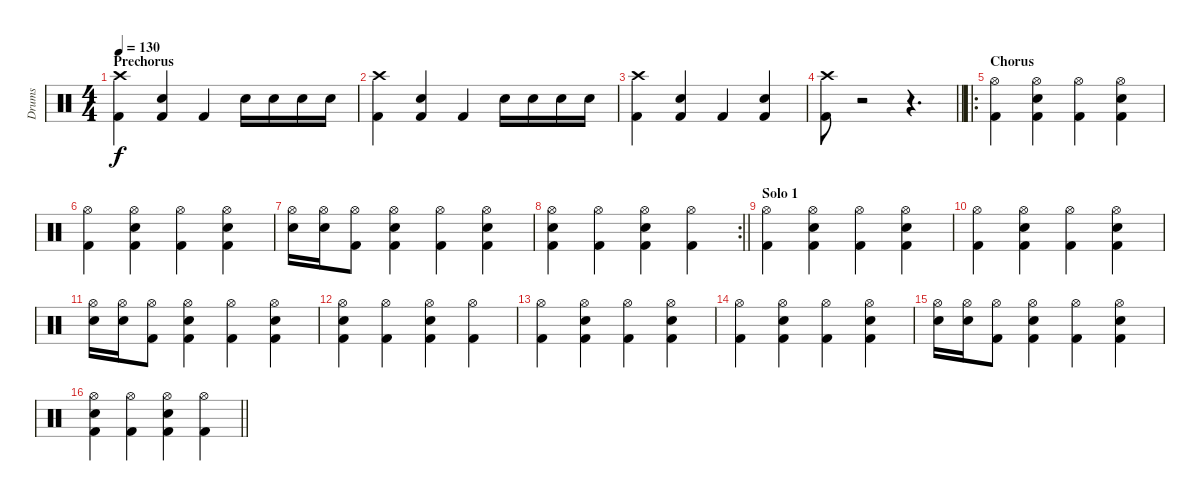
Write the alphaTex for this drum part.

\track ("Drums" "Drums") {instrument percussion}
\staff {score}
\articulation defaults
\ts (4 4)
\section ("" "Prechorus")
\tempo 130
\clef neutral
\ks c
("Crash high (hit)" "Kick (hit) 2").4{dy f} ("Snare (hit) 2" "Kick (hit) 2").4 "Kick (hit) 2".4 "Snare (hit) 2".16 "Snare (hit) 2".16 "Snare (hit) 2".16 "Snare (hit) 2".16 |
("Crash high (hit)" "Kick (hit) 2").4 ("Snare (hit) 2" "Kick (hit) 2").4 "Kick (hit) 2".4 "Snare (hit) 2".16 "Snare (hit) 2".16 "Snare (hit) 2".16 "Snare (hit) 2".16 |
("Crash high (hit)" "Kick (hit) 2").4 ("Snare (hit) 2" "Kick (hit) 2").4 "Kick (hit) 2".4 ("Snare (hit) 2" "Kick (hit) 2").4 |
\barLineRight lightlight
("Crash high (hit)" "Kick (hit) 2").8 r.2 r.4{d} |
\ro
\section ("" "Chorus")
("Hi-Hat (open)" "Kick (hit) 2").4 ("Hi-Hat (open)" "Snare (hit) 2" "Kick (hit) 2").4 ("Hi-Hat (open)" "Kick (hit) 2").4 ("Hi-Hat (open)" "Snare (hit) 2" "Kick (hit) 2").4 |
("Hi-Hat (open)" "Kick (hit) 2").4 ("Hi-Hat (open)" "Snare (hit) 2" "Kick (hit) 2").4 ("Hi-Hat (open)" "Kick (hit) 2").4 ("Hi-Hat (open)" "Snare (hit) 2" "Kick (hit) 2").4 |
("Hi-Hat (open)" "Snare (hit) 2").16 ("Hi-Hat (open)" "Snare (hit) 2").16 ("Hi-Hat (open)" "Kick (hit) 2").8 ("Hi-Hat (open)" "Snare (hit) 2" "Kick (hit) 2").4 ("Hi-Hat (open)" "Kick (hit) 2").4 ("Hi-Hat (open)" "Snare (hit) 2" "Kick (hit) 2").4 |
\rc 2
\barLineRight lightlight
("Hi-Hat (open)" "Snare (hit) 2" "Kick (hit) 2").4 ("Hi-Hat (open)" "Kick (hit) 2").4 ("Hi-Hat (open)" "Snare (hit) 2" "Kick (hit) 2").4 ("Hi-Hat (open)" "Kick (hit) 2").4 |
\section ("" "Solo 1")
("Hi-Hat (open)" "Kick (hit) 2").4 ("Hi-Hat (open)" "Snare (hit) 2" "Kick (hit) 2").4 ("Hi-Hat (open)" "Kick (hit) 2").4 ("Hi-Hat (open)" "Snare (hit) 2" "Kick (hit) 2").4 |
("Hi-Hat (open)" "Kick (hit) 2").4 ("Hi-Hat (open)" "Snare (hit) 2" "Kick (hit) 2").4 ("Hi-Hat (open)" "Kick (hit) 2").4 ("Hi-Hat (open)" "Snare (hit) 2" "Kick (hit) 2").4 |
("Hi-Hat (open)" "Snare (hit) 2").16 ("Hi-Hat (open)" "Snare (hit) 2").16 ("Hi-Hat (open)" "Kick (hit) 2").8 ("Hi-Hat (open)" "Snare (hit) 2" "Kick (hit) 2").4 ("Hi-Hat (open)" "Kick (hit) 2").4 ("Hi-Hat (open)" "Snare (hit) 2" "Kick (hit) 2").4 |
("Hi-Hat (open)" "Snare (hit) 2" "Kick (hit) 2").4 ("Hi-Hat (open)" "Kick (hit) 2").4 ("Hi-Hat (open)" "Snare (hit) 2" "Kick (hit) 2").4 ("Hi-Hat (open)" "Kick (hit) 2").4 |
("Hi-Hat (open)" "Kick (hit) 2").4 ("Hi-Hat (open)" "Snare (hit) 2" "Kick (hit) 2").4 ("Hi-Hat (open)" "Kick (hit) 2").4 ("Hi-Hat (open)" "Snare (hit) 2" "Kick (hit) 2").4 |
("Hi-Hat (open)" "Kick (hit) 2").4 ("Hi-Hat (open)" "Snare (hit) 2" "Kick (hit) 2").4 ("Hi-Hat (open)" "Kick (hit) 2").4 ("Hi-Hat (open)" "Snare (hit) 2" "Kick (hit) 2").4 |
("Hi-Hat (open)" "Snare (hit) 2").16 ("Hi-Hat (open)" "Snare (hit) 2").16 ("Hi-Hat (open)" "Kick (hit) 2").8 ("Hi-Hat (open)" "Snare (hit) 2" "Kick (hit) 2").4 ("Hi-Hat (open)" "Kick (hit) 2").4 ("Hi-Hat (open)" "Snare (hit) 2" "Kick (hit) 2").4 |
\barLineRight lightlight
("Hi-Hat (open)" "Snare (hit) 2" "Kick (hit) 2").4 ("Hi-Hat (open)" "Kick (hit) 2").4 ("Hi-Hat (open)" "Snare (hit) 2" "Kick (hit) 2").4 ("Hi-Hat (open)" "Kick (hit) 2").4
